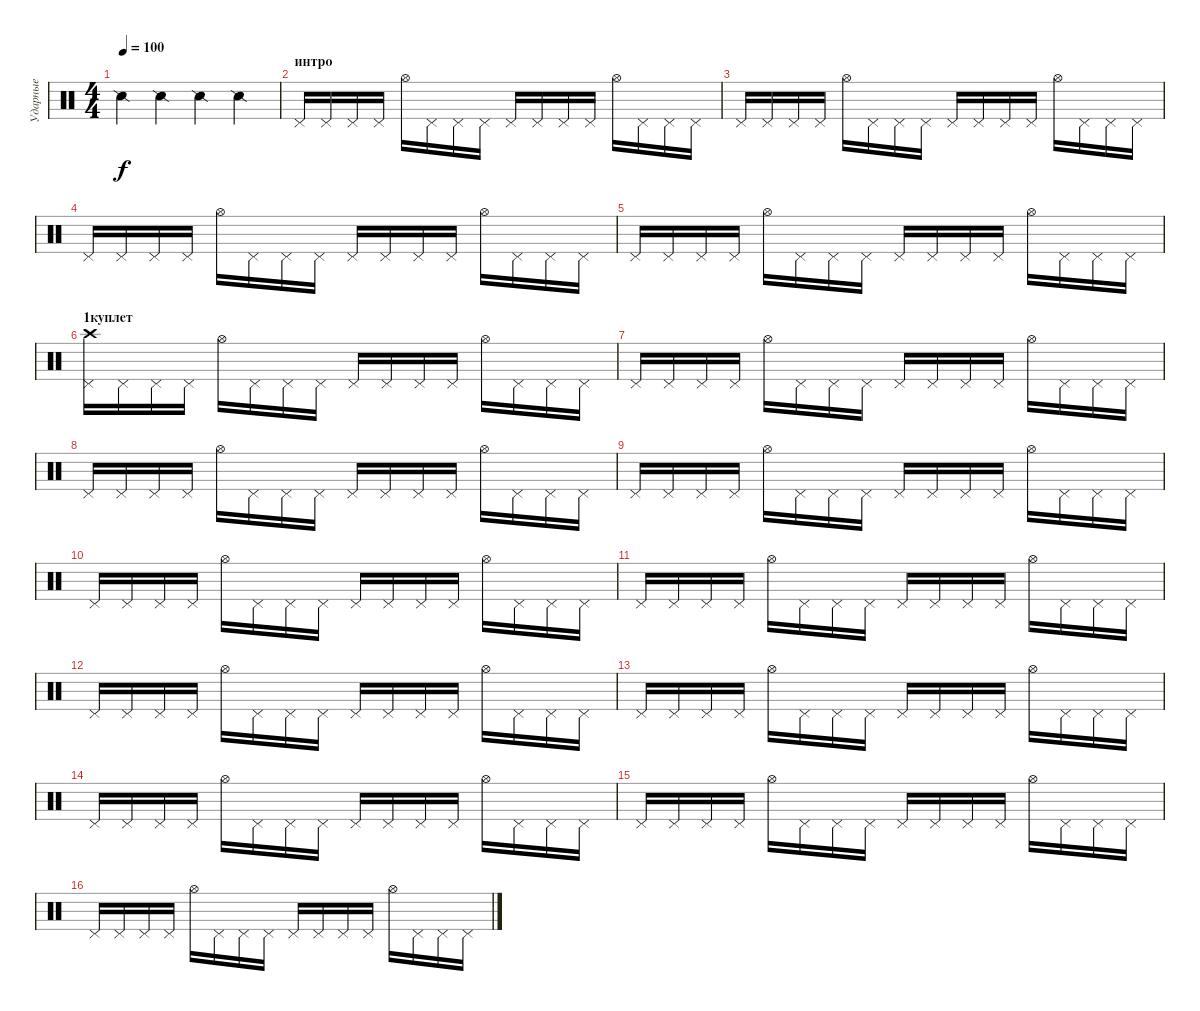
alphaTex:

\track ("Ударные" "Ударные") {instrument percussion}
\staff {score}
\articulation defaults
\ts (4 4)
\tempo 100
\clef neutral
\ks c "Snare (side stick) 2".4{dy f} "Snare (side stick) 2".4 "Snare (side stick) 2".4 "Snare (side stick) 2".4
|
\section ("" "интро")
"Pedal Hi-Hat (hit)".16 "Pedal Hi-Hat (hit)".16 "Pedal Hi-Hat (hit)".16 "Pedal Hi-Hat (hit)".16 "Hi-Hat (open)".16 "Pedal Hi-Hat (hit)".16 "Pedal Hi-Hat (hit)".16 "Pedal Hi-Hat (hit)".16 "Pedal Hi-Hat (hit)".16 "Pedal Hi-Hat (hit)".16 "Pedal Hi-Hat (hit)".16 "Pedal Hi-Hat (hit)".16 "Hi-Hat (open)".16 "Pedal Hi-Hat (hit)".16 "Pedal Hi-Hat (hit)".16 "Pedal Hi-Hat (hit)".16 |
"Pedal Hi-Hat (hit)".16 "Pedal Hi-Hat (hit)".16 "Pedal Hi-Hat (hit)".16 "Pedal Hi-Hat (hit)".16 "Hi-Hat (open)".16 "Pedal Hi-Hat (hit)".16 "Pedal Hi-Hat (hit)".16 "Pedal Hi-Hat (hit)".16 "Pedal Hi-Hat (hit)".16 "Pedal Hi-Hat (hit)".16 "Pedal Hi-Hat (hit)".16 "Pedal Hi-Hat (hit)".16 "Hi-Hat (open)".16 "Pedal Hi-Hat (hit)".16 "Pedal Hi-Hat (hit)".16 "Pedal Hi-Hat (hit)".16 |
"Pedal Hi-Hat (hit)".16 "Pedal Hi-Hat (hit)".16 "Pedal Hi-Hat (hit)".16 "Pedal Hi-Hat (hit)".16 "Hi-Hat (open)".16 "Pedal Hi-Hat (hit)".16 "Pedal Hi-Hat (hit)".16 "Pedal Hi-Hat (hit)".16 "Pedal Hi-Hat (hit)".16 "Pedal Hi-Hat (hit)".16 "Pedal Hi-Hat (hit)".16 "Pedal Hi-Hat (hit)".16 "Hi-Hat (open)".16 "Pedal Hi-Hat (hit)".16 "Pedal Hi-Hat (hit)".16 "Pedal Hi-Hat (hit)".16 |
"Pedal Hi-Hat (hit)".16 "Pedal Hi-Hat (hit)".16 "Pedal Hi-Hat (hit)".16 "Pedal Hi-Hat (hit)".16 "Hi-Hat (open)".16 "Pedal Hi-Hat (hit)".16 "Pedal Hi-Hat (hit)".16 "Pedal Hi-Hat (hit)".16 "Pedal Hi-Hat (hit)".16 "Pedal Hi-Hat (hit)".16 "Pedal Hi-Hat (hit)".16 "Pedal Hi-Hat (hit)".16 "Hi-Hat (open)".16 "Pedal Hi-Hat (hit)".16 "Pedal Hi-Hat (hit)".16 "Pedal Hi-Hat (hit)".16 |
\section ("" "1куплет")
("Pedal Hi-Hat (hit)" "Crash high (hit)").16 "Pedal Hi-Hat (hit)".16 "Pedal Hi-Hat (hit)".16 "Pedal Hi-Hat (hit)".16 "Hi-Hat (open)".16 "Pedal Hi-Hat (hit)".16 "Pedal Hi-Hat (hit)".16 "Pedal Hi-Hat (hit)".16 "Pedal Hi-Hat (hit)".16 "Pedal Hi-Hat (hit)".16 "Pedal Hi-Hat (hit)".16 "Pedal Hi-Hat (hit)".16 "Hi-Hat (open)".16 "Pedal Hi-Hat (hit)".16 "Pedal Hi-Hat (hit)".16 "Pedal Hi-Hat (hit)".16 |
"Pedal Hi-Hat (hit)".16 "Pedal Hi-Hat (hit)".16 "Pedal Hi-Hat (hit)".16 "Pedal Hi-Hat (hit)".16 "Hi-Hat (open)".16 "Pedal Hi-Hat (hit)".16 "Pedal Hi-Hat (hit)".16 "Pedal Hi-Hat (hit)".16 "Pedal Hi-Hat (hit)".16 "Pedal Hi-Hat (hit)".16 "Pedal Hi-Hat (hit)".16 "Pedal Hi-Hat (hit)".16 "Hi-Hat (open)".16 "Pedal Hi-Hat (hit)".16 "Pedal Hi-Hat (hit)".16 "Pedal Hi-Hat (hit)".16 |
"Pedal Hi-Hat (hit)".16 "Pedal Hi-Hat (hit)".16 "Pedal Hi-Hat (hit)".16 "Pedal Hi-Hat (hit)".16 "Hi-Hat (open)".16 "Pedal Hi-Hat (hit)".16 "Pedal Hi-Hat (hit)".16 "Pedal Hi-Hat (hit)".16 "Pedal Hi-Hat (hit)".16 "Pedal Hi-Hat (hit)".16 "Pedal Hi-Hat (hit)".16 "Pedal Hi-Hat (hit)".16 "Hi-Hat (open)".16 "Pedal Hi-Hat (hit)".16 "Pedal Hi-Hat (hit)".16 "Pedal Hi-Hat (hit)".16 |
"Pedal Hi-Hat (hit)".16 "Pedal Hi-Hat (hit)".16 "Pedal Hi-Hat (hit)".16 "Pedal Hi-Hat (hit)".16 "Hi-Hat (open)".16 "Pedal Hi-Hat (hit)".16 "Pedal Hi-Hat (hit)".16 "Pedal Hi-Hat (hit)".16 "Pedal Hi-Hat (hit)".16 "Pedal Hi-Hat (hit)".16 "Pedal Hi-Hat (hit)".16 "Pedal Hi-Hat (hit)".16 "Hi-Hat (open)".16 "Pedal Hi-Hat (hit)".16 "Pedal Hi-Hat (hit)".16 "Pedal Hi-Hat (hit)".16 |
"Pedal Hi-Hat (hit)".16 "Pedal Hi-Hat (hit)".16 "Pedal Hi-Hat (hit)".16 "Pedal Hi-Hat (hit)".16 "Hi-Hat (open)".16 "Pedal Hi-Hat (hit)".16 "Pedal Hi-Hat (hit)".16 "Pedal Hi-Hat (hit)".16 "Pedal Hi-Hat (hit)".16 "Pedal Hi-Hat (hit)".16 "Pedal Hi-Hat (hit)".16 "Pedal Hi-Hat (hit)".16 "Hi-Hat (open)".16 "Pedal Hi-Hat (hit)".16 "Pedal Hi-Hat (hit)".16 "Pedal Hi-Hat (hit)".16 |
"Pedal Hi-Hat (hit)".16 "Pedal Hi-Hat (hit)".16 "Pedal Hi-Hat (hit)".16 "Pedal Hi-Hat (hit)".16 "Hi-Hat (open)".16 "Pedal Hi-Hat (hit)".16 "Pedal Hi-Hat (hit)".16 "Pedal Hi-Hat (hit)".16 "Pedal Hi-Hat (hit)".16 "Pedal Hi-Hat (hit)".16 "Pedal Hi-Hat (hit)".16 "Pedal Hi-Hat (hit)".16 "Hi-Hat (open)".16 "Pedal Hi-Hat (hit)".16 "Pedal Hi-Hat (hit)".16 "Pedal Hi-Hat (hit)".16 |
"Pedal Hi-Hat (hit)".16 "Pedal Hi-Hat (hit)".16 "Pedal Hi-Hat (hit)".16 "Pedal Hi-Hat (hit)".16 "Hi-Hat (open)".16 "Pedal Hi-Hat (hit)".16 "Pedal Hi-Hat (hit)".16 "Pedal Hi-Hat (hit)".16 "Pedal Hi-Hat (hit)".16 "Pedal Hi-Hat (hit)".16 "Pedal Hi-Hat (hit)".16 "Pedal Hi-Hat (hit)".16 "Hi-Hat (open)".16 "Pedal Hi-Hat (hit)".16 "Pedal Hi-Hat (hit)".16 "Pedal Hi-Hat (hit)".16 |
"Pedal Hi-Hat (hit)".16 "Pedal Hi-Hat (hit)".16 "Pedal Hi-Hat (hit)".16 "Pedal Hi-Hat (hit)".16 "Hi-Hat (open)".16 "Pedal Hi-Hat (hit)".16 "Pedal Hi-Hat (hit)".16 "Pedal Hi-Hat (hit)".16 "Pedal Hi-Hat (hit)".16 "Pedal Hi-Hat (hit)".16 "Pedal Hi-Hat (hit)".16 "Pedal Hi-Hat (hit)".16 "Hi-Hat (open)".16 "Pedal Hi-Hat (hit)".16 "Pedal Hi-Hat (hit)".16 "Pedal Hi-Hat (hit)".16 |
"Pedal Hi-Hat (hit)".16 "Pedal Hi-Hat (hit)".16 "Pedal Hi-Hat (hit)".16 "Pedal Hi-Hat (hit)".16 "Hi-Hat (open)".16 "Pedal Hi-Hat (hit)".16 "Pedal Hi-Hat (hit)".16 "Pedal Hi-Hat (hit)".16 "Pedal Hi-Hat (hit)".16 "Pedal Hi-Hat (hit)".16 "Pedal Hi-Hat (hit)".16 "Pedal Hi-Hat (hit)".16 "Hi-Hat (open)".16 "Pedal Hi-Hat (hit)".16 "Pedal Hi-Hat (hit)".16 "Pedal Hi-Hat (hit)".16 |
"Pedal Hi-Hat (hit)".16 "Pedal Hi-Hat (hit)".16 "Pedal Hi-Hat (hit)".16 "Pedal Hi-Hat (hit)".16 "Hi-Hat (open)".16 "Pedal Hi-Hat (hit)".16 "Pedal Hi-Hat (hit)".16 "Pedal Hi-Hat (hit)".16 "Pedal Hi-Hat (hit)".16 "Pedal Hi-Hat (hit)".16 "Pedal Hi-Hat (hit)".16 "Pedal Hi-Hat (hit)".16 "Hi-Hat (open)".16 "Pedal Hi-Hat (hit)".16 "Pedal Hi-Hat (hit)".16 "Pedal Hi-Hat (hit)".16 |
"Pedal Hi-Hat (hit)".16 "Pedal Hi-Hat (hit)".16 "Pedal Hi-Hat (hit)".16 "Pedal Hi-Hat (hit)".16 "Hi-Hat (open)".16 "Pedal Hi-Hat (hit)".16 "Pedal Hi-Hat (hit)".16 "Pedal Hi-Hat (hit)".16 "Pedal Hi-Hat (hit)".16 "Pedal Hi-Hat (hit)".16 "Pedal Hi-Hat (hit)".16 "Pedal Hi-Hat (hit)".16 "Hi-Hat (open)".16 "Pedal Hi-Hat (hit)".16 "Pedal Hi-Hat (hit)".16 "Pedal Hi-Hat (hit)".16
